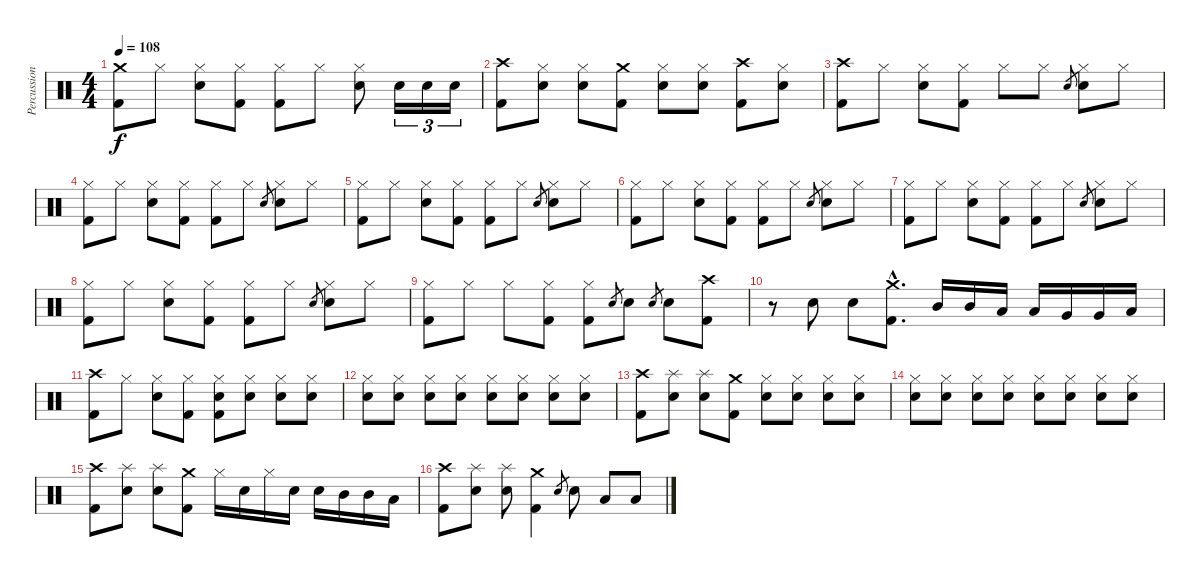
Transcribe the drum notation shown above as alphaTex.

\track ("Percussion" "Percussion") {instrument percussion}
\staff {score}
\articulation defaults
\ts (4 4)
\tempo 108
\clef neutral
\ks c
("Kick (hit) 2" "Crash medium (hit)").8{dy f} "Hi-Hat (closed)".8 ("Snare (hit) 2" "Hi-Hat (closed)").8 ("Kick (hit) 2" "Hi-Hat (closed)").8 ("Kick (hit) 2" "Hi-Hat (closed)").8 "Hi-Hat (closed)".8 ("Snare (hit) 2" "Hi-Hat (closed)").8 "Snare (hit) 2".16{tu (3 2)} "Snare (hit) 2".16{tu (3 2)} "Snare (hit) 2".16{tu (3 2)} |
("Kick (hit) 2" "Crash high (hit)").8 ("Snare (hit) 2" "Hi-Hat (closed)").8 ("Snare (hit) 2" "Hi-Hat (closed)").8 ("Kick (hit) 2" "Crash medium (hit)").8 ("Snare (hit) 2" "Hi-Hat (closed)").8 ("Snare (hit) 2" "Hi-Hat (closed)").8 ("Kick (hit) 2" "Crash high (hit)").8 ("Snare (hit) 2" "Hi-Hat (closed)").8 |
("Kick (hit) 2" "Crash high (hit)").8 "Hi-Hat (closed)".8 ("Snare (hit) 2" "Hi-Hat (closed)").8 ("Kick (hit) 2" "Hi-Hat (closed)").8 "Hi-Hat (closed)".8 "Hi-Hat (closed)".8 "Snare (hit) 2".8{gr} ("Snare (hit) 2" "Hi-Hat (closed)").8 "Hi-Hat (closed)".8 |
("Kick (hit) 2" "Hi-Hat (closed)").8 "Hi-Hat (closed)".8 ("Snare (hit) 2" "Hi-Hat (closed)").8 ("Kick (hit) 2" "Hi-Hat (closed)").8 ("Kick (hit) 2" "Hi-Hat (closed)").8 "Hi-Hat (closed)".8 "Snare (hit) 2".8{gr} ("Snare (hit) 2" "Hi-Hat (closed)").8 "Hi-Hat (closed)".8 |
("Kick (hit) 2" "Hi-Hat (closed)").8 "Hi-Hat (closed)".8 ("Snare (hit) 2" "Hi-Hat (closed)").8 ("Kick (hit) 2" "Hi-Hat (closed)").8 ("Kick (hit) 2" "Hi-Hat (closed)").8 "Hi-Hat (closed)".8 "Snare (hit) 2".8{gr} ("Snare (hit) 2" "Hi-Hat (closed)").8 "Hi-Hat (closed)".8 |
("Kick (hit) 2" "Hi-Hat (closed)").8 "Hi-Hat (closed)".8 ("Snare (hit) 2" "Hi-Hat (closed)").8 ("Kick (hit) 2" "Hi-Hat (closed)").8 ("Kick (hit) 2" "Hi-Hat (closed)").8 "Hi-Hat (closed)".8 "Snare (hit) 2".8{gr} ("Snare (hit) 2" "Hi-Hat (closed)").8 "Hi-Hat (closed)".8 |
("Kick (hit) 2" "Hi-Hat (closed)").8 "Hi-Hat (closed)".8 ("Snare (hit) 2" "Hi-Hat (closed)").8 ("Kick (hit) 2" "Hi-Hat (closed)").8 ("Kick (hit) 2" "Hi-Hat (closed)").8 "Hi-Hat (closed)".8 "Snare (hit) 2".8{gr} ("Snare (hit) 2" "Hi-Hat (closed)").8 "Hi-Hat (closed)".8 |
("Kick (hit) 2" "Hi-Hat (closed)").8 "Hi-Hat (closed)".8 ("Snare (hit) 2" "Hi-Hat (closed)").8 ("Kick (hit) 2" "Hi-Hat (closed)").8 ("Kick (hit) 2" "Hi-Hat (closed)").8 "Hi-Hat (closed)".8 "Snare (hit) 2".8{gr} ("Snare (hit) 2" "Hi-Hat (closed)").8 "Hi-Hat (closed)".8 |
("Kick (hit) 2" "Hi-Hat (closed)").8 "Hi-Hat (closed)".8 "Hi-Hat (closed)".8 ("Kick (hit) 2" "Hi-Hat (closed)").8 ("Kick (hit) 2" "Hi-Hat (closed)").8 "Snare (hit) 2".8{gr} "Snare (hit) 2".8 "Snare (hit) 2".8{gr} "Snare (hit) 2".8 ("Kick (hit) 2" "Crash high (hit)").8 |
r.8 "Snare (hit) 2".8 "Snare (hit) 2".8 ("Kick (hit) 2"{hac} "Crash medium (hit)"{hac}).8{d} "Mid Tom (hit)".16 "Mid Tom (hit)".16 "Low Tom (hit)".16 "Low Tom (hit)".16 "Very Low Tom (hit)".16 "Very Low Tom (hit)".16 "Low Floor Tom (hit)".16 |
("Kick (hit) 2" "Crash high (hit)").8 "Hi-Hat (closed)".8 ("Snare (hit) 2" "Hi-Hat (closed)").8 ("Kick (hit) 2" "Hi-Hat (closed)").8 ("Kick (hit) 2" "Snare (hit) 2" "Hi-Hat (closed)").8 ("Snare (hit) 2" "Hi-Hat (closed)").8 ("Snare (hit) 2" "Hi-Hat (closed)").8 ("Snare (hit) 2" "Hi-Hat (closed)").8 |
("Snare (hit) 2" "Hi-Hat (closed)").8 ("Snare (hit) 2" "Hi-Hat (closed)").8 ("Snare (hit) 2" "Hi-Hat (closed)").8 ("Snare (hit) 2" "Hi-Hat (closed)").8 ("Snare (hit) 2" "Hi-Hat (closed)").8 ("Snare (hit) 2" "Hi-Hat (closed)").8 ("Snare (hit) 2" "Hi-Hat (closed)").8 ("Snare (hit) 2" "Hi-Hat (closed)").8 |
("Kick (hit) 2" "Crash high (hit)").8 ("Snare (hit) 2" "Splash (hit)").8 ("Snare (hit) 2" "Splash (hit)").8 ("Kick (hit) 2" "Crash medium (hit)").8 ("Snare (hit) 2" "Hi-Hat (closed)").8 ("Snare (hit) 2" "Hi-Hat (closed)").8 ("Snare (hit) 2" "Hi-Hat (closed)").8 ("Snare (hit) 2" "Hi-Hat (closed)").8 |
("Snare (hit) 2" "Hi-Hat (closed)").8 ("Snare (hit) 2" "Hi-Hat (closed)").8 ("Snare (hit) 2" "Hi-Hat (closed)").8 ("Snare (hit) 2" "Hi-Hat (closed)").8 ("Snare (hit) 2" "Hi-Hat (closed)").8 ("Snare (hit) 2" "Hi-Hat (closed)").8 ("Snare (hit) 2" "Hi-Hat (closed)").8 ("Snare (hit) 2" "Hi-Hat (closed)").8 |
("Kick (hit) 2" "Crash high (hit)").8 ("Snare (hit) 2" "Splash (hit)").8 ("Snare (hit) 2" "Splash (hit)").8 ("Kick (hit) 2" "Crash medium (hit)").8 "Hi-Hat (closed)".16 "Snare (hit) 2".16 "Hi-Hat (closed)".16 "Snare (hit) 2".16 "Snare (hit) 2".16 "Mid Tom (hit)".16 "Mid Tom (hit)".16 "Low Tom (hit)".16 |
("Kick (hit) 2" "Crash high (hit)").8 ("Snare (hit) 2" "Splash (hit)").8 ("Snare (hit) 2" "Splash (hit)").8 ("Kick (hit) 2" "Crash medium (hit)").4 "Snare (hit) 2".8{gr} "Snare (hit) 2".8 "Low Floor Tom (hit)".8 "Low Floor Tom (hit)".8
